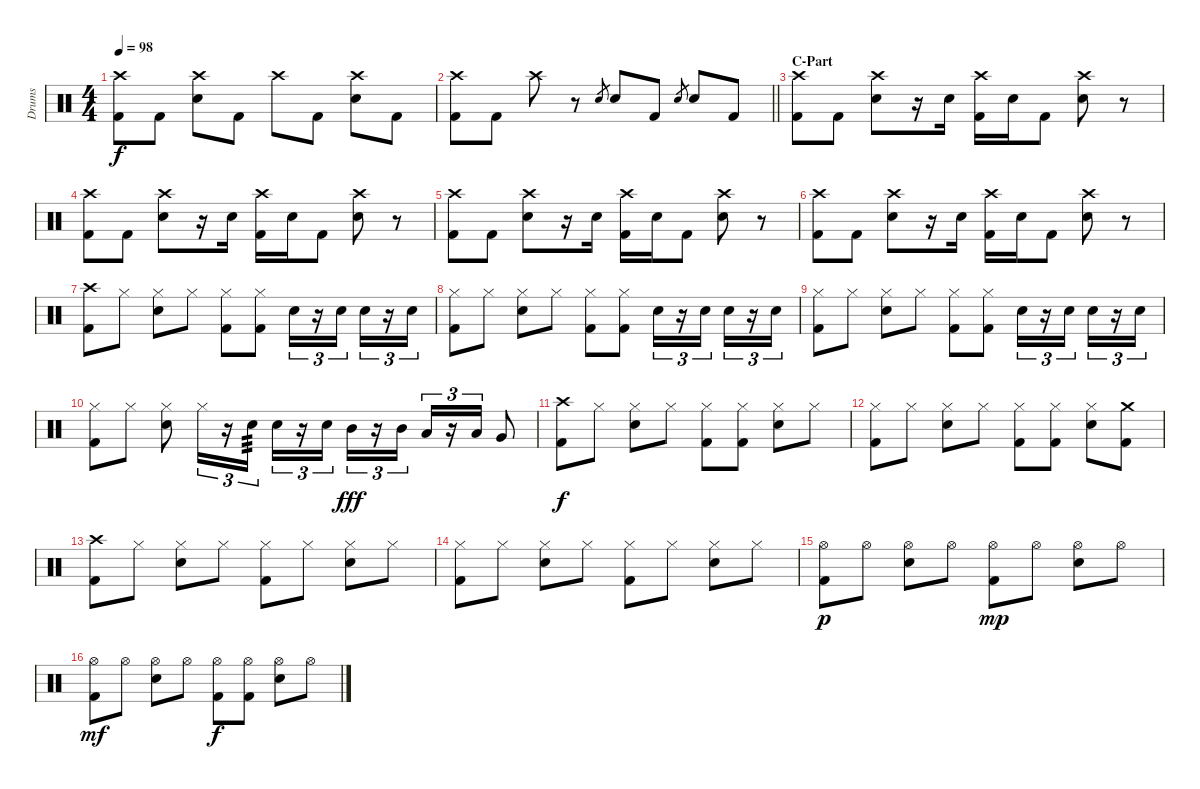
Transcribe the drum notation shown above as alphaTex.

\track ("Drums" "Drums") {instrument percussion}
\staff {score}
\articulation defaults
\ts (4 4)
\tempo 98
\clef neutral
\ks c
("Crash high (hit)" "Kick (hit) 2").8{dy f} "Kick (hit) 2".8 ("Crash high (hit)" "Snare (hit) 2").8 "Kick (hit) 2".8 "Crash high (hit)".8 "Kick (hit) 2".8 ("Crash high (hit)" "Snare (hit) 2").8 "Kick (hit) 2".8 |
\barLineRight lightlight
("Crash high (hit)" "Kick (hit) 2").8 "Kick (hit) 2".8 "Crash high (hit)".8 r.8 "Snare (hit) 2".8{gr} "Snare (hit) 2".8 "Kick (hit) 2".8 "Snare (hit) 2".8{gr} "Snare (hit) 2".8 "Kick (hit) 2".8 |
\section ("" "C-Part")
("Crash high (hit)" "Kick (hit) 2").8 "Kick (hit) 2".8 ("Crash high (hit)" "Snare (hit) 2").8 r.16 "Snare (hit) 2".16 ("Crash high (hit)" "Kick (hit) 2").16 "Snare (hit) 2".16 "Kick (hit) 2".8 ("Crash high (hit)" "Snare (hit) 2").8 r.8 |
("Crash high (hit)" "Kick (hit) 2").8 "Kick (hit) 2".8 ("Crash high (hit)" "Snare (hit) 2").8 r.16 "Snare (hit) 2".16 ("Crash high (hit)" "Kick (hit) 2").16 "Snare (hit) 2".16 "Kick (hit) 2".8 ("Crash high (hit)" "Snare (hit) 2").8 r.8 |
("Crash high (hit)" "Kick (hit) 2").8 "Kick (hit) 2".8 ("Crash high (hit)" "Snare (hit) 2").8 r.16 "Snare (hit) 2".16 ("Crash high (hit)" "Kick (hit) 2").16 "Snare (hit) 2".16 "Kick (hit) 2".8 ("Crash high (hit)" "Snare (hit) 2").8 r.8 |
("Crash high (hit)" "Kick (hit) 2").8 "Kick (hit) 2".8 ("Crash high (hit)" "Snare (hit) 2").8 r.16 "Snare (hit) 2".16 ("Crash high (hit)" "Kick (hit) 2").16 "Snare (hit) 2".16 "Kick (hit) 2".8 ("Crash high (hit)" "Snare (hit) 2").8 r.8 |
("Crash high (hit)" "Kick (hit) 2").8 "Hi-Hat (closed)".8 ("Hi-Hat (closed)" "Snare (hit) 2").8 "Hi-Hat (closed)".8 ("Hi-Hat (closed)" "Kick (hit) 2").8 ("Hi-Hat (closed)" "Kick (hit) 2").8 "Snare (hit) 2".16{tu (3 2)} r.16{tu (3 2)} "Snare (hit) 2".16{tu (3 2)} "Snare (hit) 2".16{tu (3 2)} r.16{tu (3 2)} "Snare (hit) 2".16{tu (3 2)} |
("Hi-Hat (closed)" "Kick (hit) 2").8 "Hi-Hat (closed)".8 ("Hi-Hat (closed)" "Snare (hit) 2").8 "Hi-Hat (closed)".8 ("Hi-Hat (closed)" "Kick (hit) 2").8 ("Hi-Hat (closed)" "Kick (hit) 2").8 "Snare (hit) 2".16{tu (3 2)} r.16{tu (3 2)} "Snare (hit) 2".16{tu (3 2)} "Snare (hit) 2".16{tu (3 2)} r.16{tu (3 2)} "Snare (hit) 2".16{tu (3 2)} |
("Hi-Hat (closed)" "Kick (hit) 2").8 "Hi-Hat (closed)".8 ("Hi-Hat (closed)" "Snare (hit) 2").8 "Hi-Hat (closed)".8 ("Hi-Hat (closed)" "Kick (hit) 2").8 ("Hi-Hat (closed)" "Kick (hit) 2").8 "Snare (hit) 2".16{tu (3 2)} r.16{tu (3 2)} "Snare (hit) 2".16{tu (3 2)} "Snare (hit) 2".16{tu (3 2)} r.16{tu (3 2)} "Snare (hit) 2".16{tu (3 2)} |
("Hi-Hat (closed)" "Kick (hit) 2").8 "Hi-Hat (closed)".8 ("Hi-Hat (closed)" "Snare (hit) 2").8 "Hi-Hat (closed)".16{tu (3 2)} r.16{tu (3 2)} "Snare (hit) 2".16{tu (3 2) tp 3} "Snare (hit) 2".16{tu (3 2)} r.16{tu (3 2)} "Snare (hit) 2".16{tu (3 2)} "Mid Tom (hit)".16{tu (3 2) dy fff} r.16{tu (3 2)} "Mid Tom (hit)".16{tu (3 2)} "Low Tom (hit)".16{tu (3 2)} r.16{tu (3 2)} "Low Tom (hit)".16{tu (3 2)} "Very Low Tom (hit)".8 |
("Crash high (hit)" "Kick (hit) 2").8{dy f} "Hi-Hat (closed)".8 ("Hi-Hat (closed)" "Snare (hit) 2").8 "Hi-Hat (closed)".8 ("Hi-Hat (closed)" "Kick (hit) 2").8 ("Hi-Hat (closed)" "Kick (hit) 2").8 ("Hi-Hat (closed)" "Snare (hit) 2").8 "Hi-Hat (closed)".8 |
("Hi-Hat (closed)" "Kick (hit) 2").8 "Hi-Hat (closed)".8 ("Hi-Hat (closed)" "Snare (hit) 2").8 "Hi-Hat (closed)".8 ("Hi-Hat (closed)" "Kick (hit) 2").8 ("Hi-Hat (closed)" "Kick (hit) 2").8 ("Hi-Hat (closed)" "Snare (hit) 2").8 ("Crash medium (hit)" "Kick (hit) 2").8 |
("Crash high (hit)" "Kick (hit) 2").8 "Hi-Hat (closed)".8 ("Hi-Hat (closed)" "Snare (hit) 2").8 "Hi-Hat (closed)".8 ("Hi-Hat (closed)" "Kick (hit) 2").8 "Hi-Hat (closed)".8 ("Hi-Hat (closed)" "Snare (hit) 2").8 "Hi-Hat (closed)".8 |
("Hi-Hat (closed)" "Kick (hit) 2").8 "Hi-Hat (closed)".8 ("Hi-Hat (closed)" "Snare (hit) 2").8 "Hi-Hat (closed)".8 ("Hi-Hat (closed)" "Kick (hit) 2").8 "Hi-Hat (closed)".8 ("Hi-Hat (closed)" "Snare (hit) 2").8 "Hi-Hat (closed)".8 |
("Hi-Hat (open)" "Kick (hit) 2").8{dy p} "Hi-Hat (open)".8 ("Hi-Hat (open)" "Snare (hit) 2").8 "Hi-Hat (open)".8 ("Hi-Hat (open)" "Kick (hit) 2").8{dy mp} "Hi-Hat (open)".8 ("Hi-Hat (open)" "Snare (hit) 2").8 "Hi-Hat (open)".8 |
("Hi-Hat (open)" "Kick (hit) 2").8{dy mf} "Hi-Hat (open)".8 ("Hi-Hat (open)" "Snare (hit) 2").8 "Hi-Hat (open)".8 ("Hi-Hat (open)" "Kick (hit) 2").8{dy f} ("Hi-Hat (open)" "Kick (hit) 2").8 ("Hi-Hat (open)" "Snare (hit) 2").8 "Hi-Hat (open)".8
